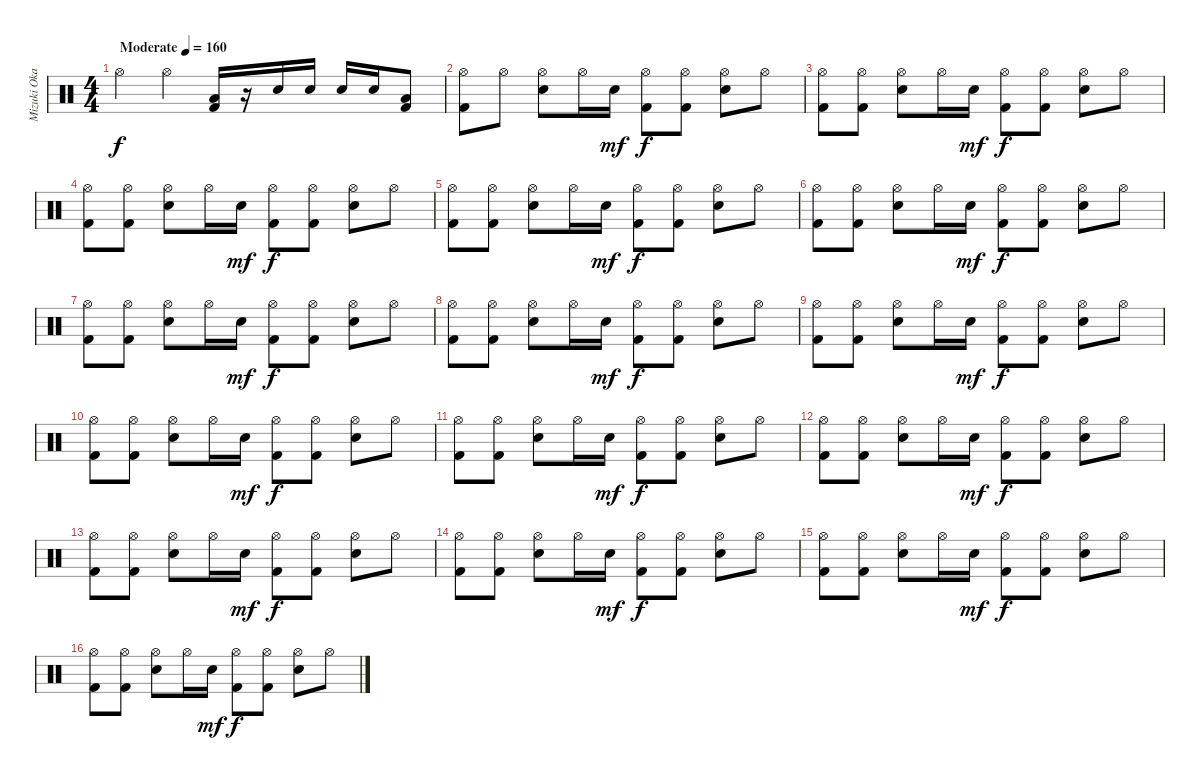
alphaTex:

\track ("Mizuki Okajima (Drums)" "Mizuki Oka") {instrument percussion}
\staff {score}
\articulation defaults
\ts (4 4)
\tempo (160 "Moderate")
\clef neutral
\ks c "Hi-Hat (open)".4{dy f} "Hi-Hat (open)".4
("Low Tom (hit)" "Kick (hit) 2").16 r.16 "Snare (hit) 2".16 "Snare (hit) 2".16 "Snare (hit) 2".16 "Snare (hit) 2".16 ("Low Tom (hit)" "Kick (hit) 2").8 |
("Hi-Hat (open)" "Kick (hit) 2").8 "Hi-Hat (open)".8 ("Hi-Hat (open)" "Snare (hit) 2").8 "Hi-Hat (open)".16 "Snare (hit) 2".16{dy mf} ("Hi-Hat (open)" "Kick (hit) 2").8{dy f} ("Hi-Hat (open)" "Kick (hit) 2").8 ("Hi-Hat (open)" "Snare (hit) 2").8 "Hi-Hat (open)".8 |
("Hi-Hat (open)" "Kick (hit) 2").8 ("Hi-Hat (open)" "Kick (hit) 2").8 ("Hi-Hat (open)" "Snare (hit) 2").8 "Hi-Hat (open)".16 "Snare (hit) 2".16{dy mf} ("Hi-Hat (open)" "Kick (hit) 2").8{dy f} ("Hi-Hat (open)" "Kick (hit) 2").8 ("Hi-Hat (open)" "Snare (hit) 2").8 "Hi-Hat (open)".8 |
("Hi-Hat (open)" "Kick (hit) 2").8 ("Hi-Hat (open)" "Kick (hit) 2").8 ("Hi-Hat (open)" "Snare (hit) 2").8 "Hi-Hat (open)".16 "Snare (hit) 2".16{dy mf} ("Hi-Hat (open)" "Kick (hit) 2").8{dy f} ("Hi-Hat (open)" "Kick (hit) 2").8 ("Hi-Hat (open)" "Snare (hit) 2").8 "Hi-Hat (open)".8 |
("Hi-Hat (open)" "Kick (hit) 2").8 ("Hi-Hat (open)" "Kick (hit) 2").8 ("Hi-Hat (open)" "Snare (hit) 2").8 "Hi-Hat (open)".16 "Snare (hit) 2".16{dy mf} ("Hi-Hat (open)" "Kick (hit) 2").8{dy f} ("Hi-Hat (open)" "Kick (hit) 2").8 ("Hi-Hat (open)" "Snare (hit) 2").8 "Hi-Hat (open)".8 |
("Hi-Hat (open)" "Kick (hit) 2").8 ("Hi-Hat (open)" "Kick (hit) 2").8 ("Hi-Hat (open)" "Snare (hit) 2").8 "Hi-Hat (open)".16 "Snare (hit) 2".16{dy mf} ("Hi-Hat (open)" "Kick (hit) 2").8{dy f} ("Hi-Hat (open)" "Kick (hit) 2").8 ("Hi-Hat (open)" "Snare (hit) 2").8 "Hi-Hat (open)".8 |
("Hi-Hat (open)" "Kick (hit) 2").8 ("Hi-Hat (open)" "Kick (hit) 2").8 ("Hi-Hat (open)" "Snare (hit) 2").8 "Hi-Hat (open)".16 "Snare (hit) 2".16{dy mf} ("Hi-Hat (open)" "Kick (hit) 2").8{dy f} ("Hi-Hat (open)" "Kick (hit) 2").8 ("Hi-Hat (open)" "Snare (hit) 2").8 "Hi-Hat (open)".8 |
("Hi-Hat (open)" "Kick (hit) 2").8 ("Hi-Hat (open)" "Kick (hit) 2").8 ("Hi-Hat (open)" "Snare (hit) 2").8 "Hi-Hat (open)".16 "Snare (hit) 2".16{dy mf} ("Hi-Hat (open)" "Kick (hit) 2").8{dy f} ("Hi-Hat (open)" "Kick (hit) 2").8 ("Hi-Hat (open)" "Snare (hit) 2").8 "Hi-Hat (open)".8 |
("Hi-Hat (open)" "Kick (hit) 2").8 ("Hi-Hat (open)" "Kick (hit) 2").8 ("Hi-Hat (open)" "Snare (hit) 2").8 "Hi-Hat (open)".16 "Snare (hit) 2".16{dy mf} ("Hi-Hat (open)" "Kick (hit) 2").8{dy f} ("Hi-Hat (open)" "Kick (hit) 2").8 ("Hi-Hat (open)" "Snare (hit) 2").8 "Hi-Hat (open)".8 |
("Hi-Hat (open)" "Kick (hit) 2").8 ("Hi-Hat (open)" "Kick (hit) 2").8 ("Hi-Hat (open)" "Snare (hit) 2").8 "Hi-Hat (open)".16 "Snare (hit) 2".16{dy mf} ("Hi-Hat (open)" "Kick (hit) 2").8{dy f} ("Hi-Hat (open)" "Kick (hit) 2").8 ("Hi-Hat (open)" "Snare (hit) 2").8 "Hi-Hat (open)".8 |
("Hi-Hat (open)" "Kick (hit) 2").8 ("Hi-Hat (open)" "Kick (hit) 2").8 ("Hi-Hat (open)" "Snare (hit) 2").8 "Hi-Hat (open)".16 "Snare (hit) 2".16{dy mf} ("Hi-Hat (open)" "Kick (hit) 2").8{dy f} ("Hi-Hat (open)" "Kick (hit) 2").8 ("Hi-Hat (open)" "Snare (hit) 2").8 "Hi-Hat (open)".8 |
("Hi-Hat (open)" "Kick (hit) 2").8 ("Hi-Hat (open)" "Kick (hit) 2").8 ("Hi-Hat (open)" "Snare (hit) 2").8 "Hi-Hat (open)".16 "Snare (hit) 2".16{dy mf} ("Hi-Hat (open)" "Kick (hit) 2").8{dy f} ("Hi-Hat (open)" "Kick (hit) 2").8 ("Hi-Hat (open)" "Snare (hit) 2").8 "Hi-Hat (open)".8 |
("Hi-Hat (open)" "Kick (hit) 2").8 ("Hi-Hat (open)" "Kick (hit) 2").8 ("Hi-Hat (open)" "Snare (hit) 2").8 "Hi-Hat (open)".16 "Snare (hit) 2".16{dy mf} ("Hi-Hat (open)" "Kick (hit) 2").8{dy f} ("Hi-Hat (open)" "Kick (hit) 2").8 ("Hi-Hat (open)" "Snare (hit) 2").8 "Hi-Hat (open)".8 |
("Hi-Hat (open)" "Kick (hit) 2").8 ("Hi-Hat (open)" "Kick (hit) 2").8 ("Hi-Hat (open)" "Snare (hit) 2").8 "Hi-Hat (open)".16 "Snare (hit) 2".16{dy mf} ("Hi-Hat (open)" "Kick (hit) 2").8{dy f} ("Hi-Hat (open)" "Kick (hit) 2").8 ("Hi-Hat (open)" "Snare (hit) 2").8 "Hi-Hat (open)".8 |
("Hi-Hat (open)" "Kick (hit) 2").8 ("Hi-Hat (open)" "Kick (hit) 2").8 ("Hi-Hat (open)" "Snare (hit) 2").8 "Hi-Hat (open)".16 "Snare (hit) 2".16{dy mf} ("Hi-Hat (open)" "Kick (hit) 2").8{dy f} ("Hi-Hat (open)" "Kick (hit) 2").8 ("Hi-Hat (open)" "Snare (hit) 2").8 "Hi-Hat (open)".8 |
("Hi-Hat (open)" "Kick (hit) 2").8 ("Hi-Hat (open)" "Kick (hit) 2").8 ("Hi-Hat (open)" "Snare (hit) 2").8 "Hi-Hat (open)".16 "Snare (hit) 2".16{dy mf} ("Hi-Hat (open)" "Kick (hit) 2").8{dy f} ("Hi-Hat (open)" "Kick (hit) 2").8 ("Hi-Hat (open)" "Snare (hit) 2").8 "Hi-Hat (open)".8
